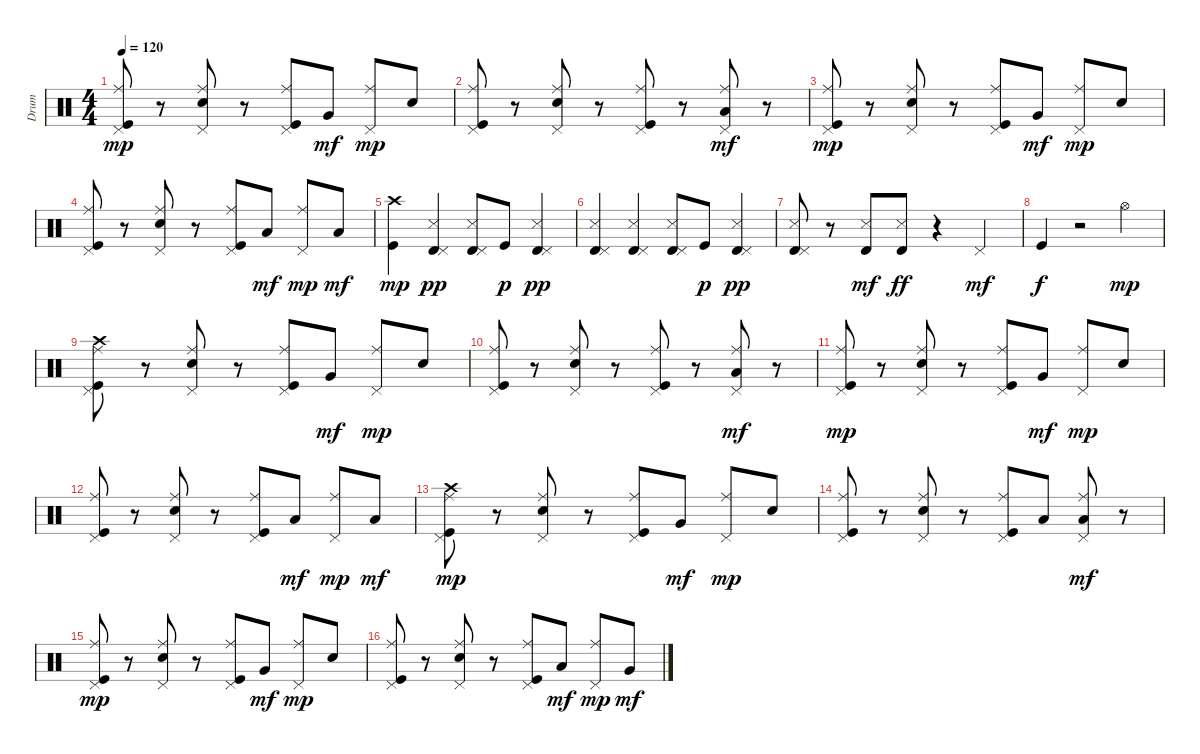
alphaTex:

\track ("Drum" "Drum") {instrument percussion}
\staff {score}
\articulation defaults
\ts (4 4)
\tempo 120
\clef neutral
\ks c
("Pedal Hi-Hat (hit)" "Ride (middle)" "Kick (hit)").8{dy mp} r.8 ("Pedal Hi-Hat (hit)" "Snare (hit) 2" "Ride (middle)").8 r.8 ("Pedal Hi-Hat (hit)" "Ride (middle)" "Kick (hit)").8 "Very Low Tom (hit)".8{dy mf} ("Pedal Hi-Hat (hit)" "Ride (middle)").8{dy mp} "Snare (hit) 2".8 |
("Pedal Hi-Hat (hit)" "Ride (middle)" "Kick (hit)").8 r.8 ("Pedal Hi-Hat (hit)" "Snare (hit) 2" "Ride (middle)").8 r.8 ("Pedal Hi-Hat (hit)" "Ride (middle)" "Kick (hit)").8 r.8 ("Pedal Hi-Hat (hit)" "Ride (middle)" "Low Floor Tom (hit)").8{dy mf} r.8 |
("Pedal Hi-Hat (hit)" "Ride (middle)" "Kick (hit)").8{dy mp} r.8 ("Pedal Hi-Hat (hit)" "Snare (hit) 2" "Ride (middle)").8 r.8 ("Pedal Hi-Hat (hit)" "Ride (middle)" "Kick (hit)").8 "Very Low Tom (hit)".8{dy mf} ("Pedal Hi-Hat (hit)" "Ride (middle)").8{dy mp} "Snare (hit) 2".8 |
("Pedal Hi-Hat (hit)" "Ride (middle)" "Kick (hit)").8 r.8 ("Pedal Hi-Hat (hit)" "Snare (hit) 2" "Ride (middle)").8 r.8 ("Pedal Hi-Hat (hit)" "Ride (middle)" "Kick (hit)").8 "Low Tom (hit)".8{dy mf} ("Pedal Hi-Hat (hit)" "Ride (middle)").8{dy mp} "Low Tom (hit)".8{dy mf} |
("Crash high (hit)" "Kick (hit)").4{dy mp} ("Timbale high (hit)" "Snare (side stick) 3" "Pedal Hi-Hat (hit)").4{dy pp} ("Timbale high (hit)" "Snare (side stick) 3" "Pedal Hi-Hat (hit)").8 "Kick (hit)".8{dy p} ("Timbale high (hit)" "Snare (side stick) 3" "Pedal Hi-Hat (hit)").4{dy pp} |
("Timbale high (hit)" "Snare (side stick) 3" "Pedal Hi-Hat (hit)").4 ("Timbale high (hit)" "Snare (side stick) 3" "Pedal Hi-Hat (hit)").4 ("Timbale high (hit)" "Snare (side stick) 3" "Pedal Hi-Hat (hit)").8 "Kick (hit)".8{dy p} ("Timbale high (hit)" "Snare (side stick) 3" "Pedal Hi-Hat (hit)").4{dy pp} |
("Timbale high (hit)" "Snare (side stick) 3" "Pedal Hi-Hat (hit)").8 r.8 ("Timbale high (hit)" "Snare (side stick) 3").8{dy mf} ("Timbale high (hit)" "Snare (side stick) 3").8{dy ff} r.4 "Pedal Hi-Hat (hit)".4{dy mf} |
"Kick (hit)".4{dy f} r.2 "Hi-Hat (open)".4{dy mp} |
("Pedal Hi-Hat (hit)" "Crash high (hit)" "Ride (middle)" "Kick (hit)").8 r.8 ("Pedal Hi-Hat (hit)" "Snare (hit) 2" "Ride (middle)").8 r.8 ("Pedal Hi-Hat (hit)" "Ride (middle)" "Kick (hit)").8 "Very Low Tom (hit)".8{dy mf} ("Pedal Hi-Hat (hit)" "Ride (middle)").8{dy mp} "Snare (hit) 2".8 |
("Pedal Hi-Hat (hit)" "Ride (middle)" "Kick (hit)").8 r.8 ("Pedal Hi-Hat (hit)" "Snare (hit) 2" "Ride (middle)").8 r.8 ("Pedal Hi-Hat (hit)" "Ride (middle)" "Kick (hit)").8 r.8 ("Pedal Hi-Hat (hit)" "Ride (middle)" "Low Floor Tom (hit)").8{dy mf} r.8 |
("Pedal Hi-Hat (hit)" "Ride (middle)" "Kick (hit)").8{dy mp} r.8 ("Pedal Hi-Hat (hit)" "Snare (hit) 2" "Ride (middle)").8 r.8 ("Pedal Hi-Hat (hit)" "Ride (middle)" "Kick (hit)").8 "Very Low Tom (hit)".8{dy mf} ("Pedal Hi-Hat (hit)" "Ride (middle)").8{dy mp} "Snare (hit) 2".8 |
("Pedal Hi-Hat (hit)" "Ride (middle)" "Kick (hit)").8 r.8 ("Pedal Hi-Hat (hit)" "Snare (hit) 2" "Ride (middle)").8 r.8 ("Pedal Hi-Hat (hit)" "Ride (middle)" "Kick (hit)").8 "Low Floor Tom (hit)".8{dy mf} ("Pedal Hi-Hat (hit)" "Ride (middle)").8{dy mp} "Low Floor Tom (hit)".8{dy mf} |
("Pedal Hi-Hat (hit)" "Crash high (hit)" "Ride (middle)" "Kick (hit)").8{dy mp} r.8 ("Pedal Hi-Hat (hit)" "Snare (hit) 2" "Ride (middle)").8 r.8 ("Pedal Hi-Hat (hit)" "Ride (middle)" "Kick (hit)").8 "Very Low Tom (hit)".8{dy mf} ("Pedal Hi-Hat (hit)" "Ride (middle)").8{dy mp} "Snare (hit) 2".8 |
("Pedal Hi-Hat (hit)" "Ride (middle)" "Kick (hit)").8 r.8 ("Pedal Hi-Hat (hit)" "Snare (hit) 2" "Ride (middle)").8 r.8 ("Pedal Hi-Hat (hit)" "Ride (middle)" "Kick (hit)").8 "Low Tom (hit)".8 ("Pedal Hi-Hat (hit)" "Ride (middle)" "Low Floor Tom (hit)").8{dy mf} r.8 |
("Pedal Hi-Hat (hit)" "Ride (middle)" "Kick (hit)").8{dy mp} r.8 ("Pedal Hi-Hat (hit)" "Snare (hit) 2" "Ride (middle)").8 r.8 ("Pedal Hi-Hat (hit)" "Ride (middle)" "Kick (hit)").8 "Very Low Tom (hit)".8{dy mf} ("Pedal Hi-Hat (hit)" "Ride (middle)").8{dy mp} "Snare (hit) 2".8 |
("Pedal Hi-Hat (hit)" "Ride (middle)" "Kick (hit)").8 r.8 ("Pedal Hi-Hat (hit)" "Snare (hit) 2" "Ride (middle)").8 r.8 ("Pedal Hi-Hat (hit)" "Ride (middle)" "Kick (hit)").8 "Low Tom (hit)".8{dy mf} ("Pedal Hi-Hat (hit)" "Ride (middle)").8{dy mp} "Very Low Tom (hit)".8{dy mf}
